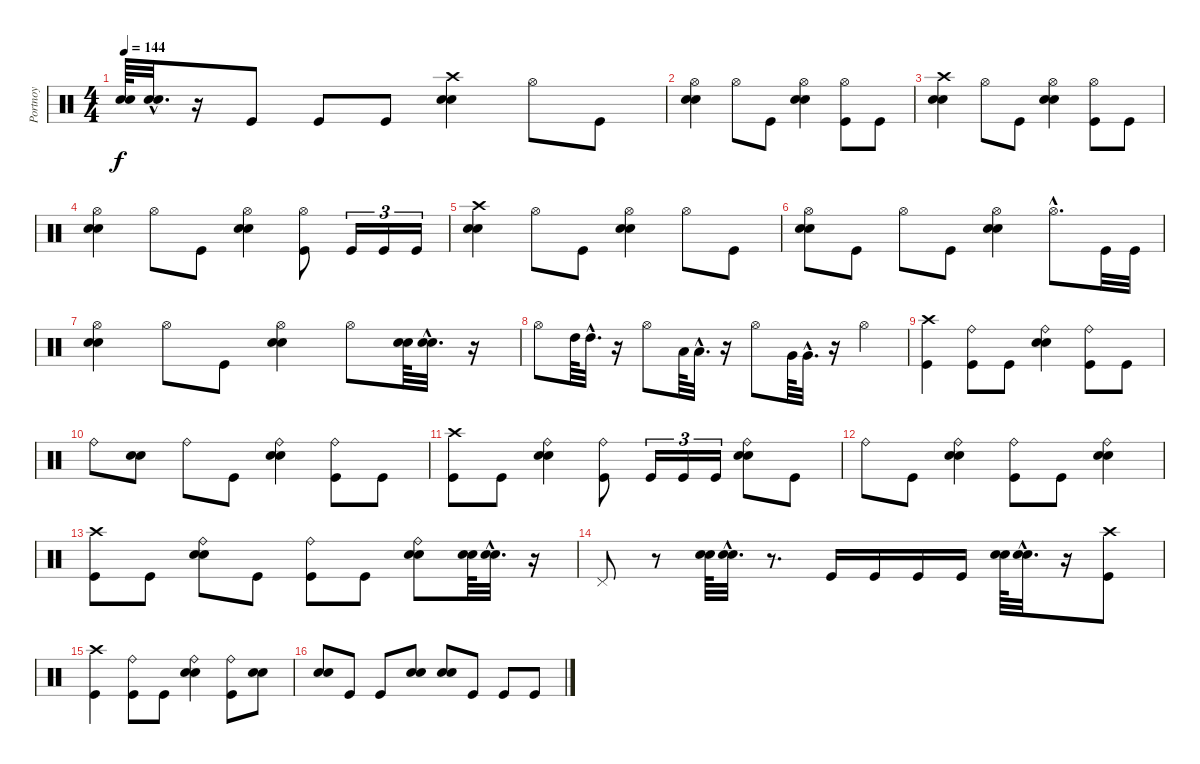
\track ("Portnoy" "Portnoy") {instrument percussion}
\staff {score}
\articulation defaults
\ts (4 4)
\tempo 144
\clef neutral
\ks c
("Snare (hit) 2" "Electric Snare (hit)").64{dy f} ("Snare (hit) 2"{hac} "Electric Snare (hit)"{hac}).32{d} r.16 "Kick (hit)".8 "Kick (hit)".8 "Kick (hit)".8 ("Crash high (hit)" "Snare (hit) 2" "Electric Snare (hit)").4 "Hi-Hat (open)".8 "Kick (hit)".8 |
("Hi-Hat (open)" "Snare (hit) 2" "Electric Snare (hit)").4 "Hi-Hat (open)".8 "Kick (hit)".8 ("Hi-Hat (open)" "Snare (hit) 2" "Electric Snare (hit)").4 ("Hi-Hat (open)" "Kick (hit)").8 "Kick (hit)".8 |
("Crash high (hit)" "Snare (hit) 2" "Electric Snare (hit)").4 "Hi-Hat (open)".8 "Kick (hit)".8 ("Hi-Hat (open)" "Snare (hit) 2" "Electric Snare (hit)").4 ("Hi-Hat (open)" "Kick (hit)").8 "Kick (hit)".8 |
("Hi-Hat (open)" "Snare (hit) 2" "Electric Snare (hit)").4 "Hi-Hat (open)".8 "Kick (hit)".8 ("Hi-Hat (open)" "Snare (hit) 2" "Electric Snare (hit)").4 ("Hi-Hat (open)" "Kick (hit)").8 "Kick (hit)".16{tu (3 2)} "Kick (hit)".16{tu (3 2)} "Kick (hit)".16{tu (3 2)} |
("Crash high (hit)" "Snare (hit) 2" "Electric Snare (hit)").4 "Hi-Hat (open)".8 "Kick (hit)".8 ("Hi-Hat (open)" "Snare (hit) 2" "Electric Snare (hit)").4 "Hi-Hat (open)".8 "Kick (hit)".8 |
("Hi-Hat (open)" "Snare (hit) 2" "Electric Snare (hit)").8 "Kick (hit)".8 "Hi-Hat (open)".8 "Kick (hit)".8 ("Hi-Hat (open)" "Snare (hit) 2" "Electric Snare (hit)").4 "Hi-Hat (open)"{hac}.8{d} "Kick (hit)".32 "Kick (hit)".32 |
("Hi-Hat (open)" "Snare (hit) 2" "Electric Snare (hit)").4 "Hi-Hat (open)".8 "Kick (hit)".8 ("Hi-Hat (open)" "Snare (hit) 2" "Electric Snare (hit)").4 "Hi-Hat (open)".8 ("Snare (hit) 2" "Electric Snare (hit)").64 ("Snare (hit) 2"{hac} "Electric Snare (hit)"{hac}).32{d} r.16 |
"Hi-Hat (open)".8 "High Tom (hit)".64 "High Tom (hit)"{hac}.32{d} r.16 "Hi-Hat (open)".8 "Low Tom (hit)".64 "Low Tom (hit)"{hac}.32{d} r.16 "Hi-Hat (open)".8 "Very Low Tom (hit)".64 "Very Low Tom (hit)"{hac}.32{d} r.16 "Hi-Hat (open)".4 |
("Crash high (hit)" "Kick (hit)").4 ("Ride (bell)" "Kick (hit)").8 "Kick (hit)".8 ("Ride (bell)" "Snare (hit) 2" "Electric Snare (hit)").4 ("Ride (bell)" "Kick (hit)").8 "Kick (hit)".8 |
"Ride (bell)".8 ("Snare (hit) 2" "Electric Snare (hit)").8 "Ride (bell)".8 "Kick (hit)".8 ("Ride (bell)" "Snare (hit) 2" "Electric Snare (hit)").4 ("Ride (bell)" "Kick (hit)").8 "Kick (hit)".8 |
("Crash high (hit)" "Kick (hit)").8 "Kick (hit)".8 ("Ride (bell)" "Snare (hit) 2" "Electric Snare (hit)").4 ("Ride (bell)" "Kick (hit)").8 "Kick (hit)".16{tu (3 2)} "Kick (hit)".16{tu (3 2)} "Kick (hit)".16{tu (3 2)} ("Ride (bell)" "Snare (hit) 2" "Electric Snare (hit)").8 "Kick (hit)".8 |
"Ride (bell)".8 "Kick (hit)".8 ("Ride (bell)" "Snare (hit) 2" "Electric Snare (hit)").4 ("Ride (bell)" "Kick (hit)").8 "Kick (hit)".8 ("Ride (bell)" "Snare (hit) 2" "Electric Snare (hit)").4 |
("Crash high (hit)" "Kick (hit)").8 "Kick (hit)".8 ("Ride (bell)" "Snare (hit) 2" "Electric Snare (hit)").8 "Kick (hit)".8 ("Ride (bell)" "Kick (hit)").8 "Kick (hit)".8 ("Ride (bell)" "Snare (hit) 2" "Electric Snare (hit)").8 ("Snare (hit) 2" "Electric Snare (hit)").64 ("Snare (hit) 2"{hac} "Electric Snare (hit)"{hac}).32{d} r.16 |
"Pedal Hi-Hat (hit)".8 r.8 ("Snare (hit) 2" "Electric Snare (hit)").64 ("Snare (hit) 2"{hac} "Electric Snare (hit)"{hac}).32{d} r.8{d} "Kick (hit)".16 "Kick (hit)".16 "Kick (hit)".16 "Kick (hit)".16 ("Snare (hit) 2" "Electric Snare (hit)").64 ("Snare (hit) 2"{hac} "Electric Snare (hit)"{hac}).32{d} r.16 ("Crash high (hit)" "Kick (hit)").8 |
("Crash high (hit)" "Kick (hit)").4 ("Ride (bell)" "Kick (hit)").8 "Kick (hit)".8 ("Ride (bell)" "Snare (hit) 2" "Electric Snare (hit)").4 ("Ride (bell)" "Kick (hit)").8 ("Snare (hit) 2" "Electric Snare (hit)").8 |
("Snare (hit) 2" "Electric Snare (hit)").8 "Kick (hit)".8 "Kick (hit)".8 ("Snare (hit) 2" "Electric Snare (hit)").8 ("Snare (hit) 2" "Electric Snare (hit)").8 "Kick (hit)".8 "Kick (hit)".8 "Kick (hit)".8
